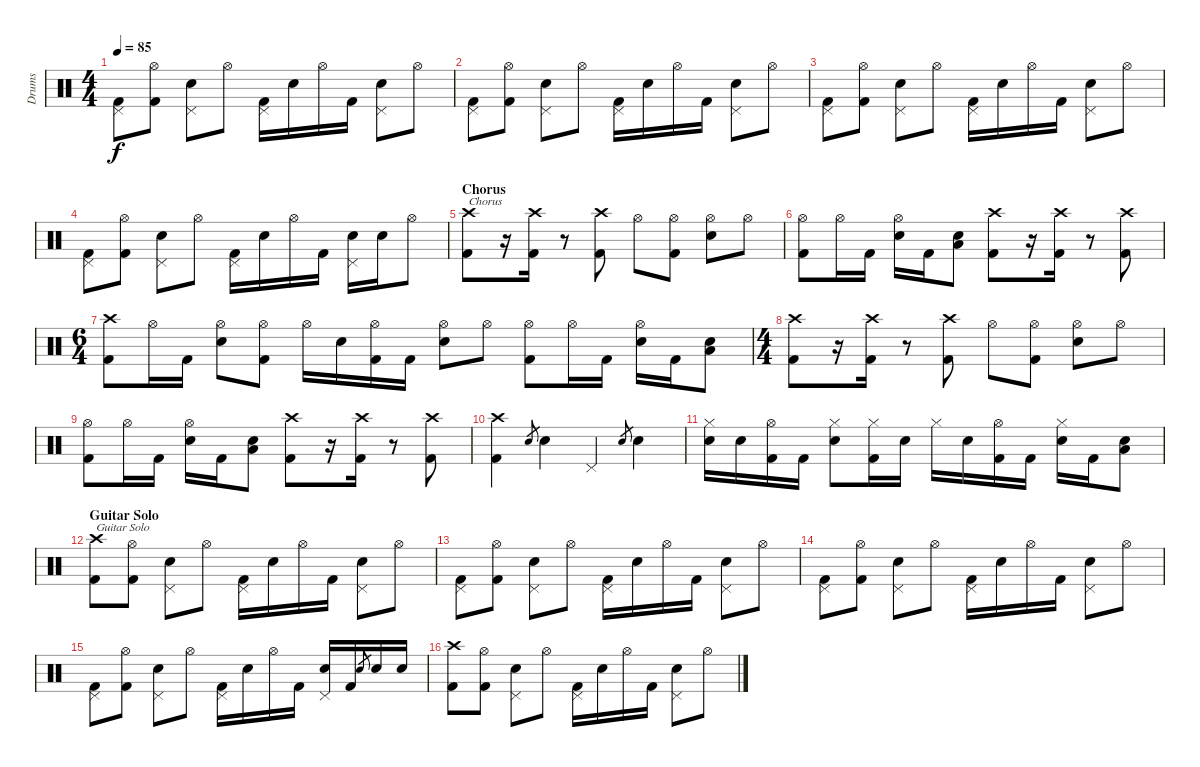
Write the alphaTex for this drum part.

\track ("Drums" "Drums") {instrument percussion}
\staff {score}
\articulation defaults
\ts (4 4)
\tempo 85
\clef neutral
\ks c
("Pedal Hi-Hat (hit)" "Kick (hit) 2").8{dy f} ("Hi-Hat (open)" "Kick (hit) 2").8 ("Electric Snare (hit)" "Pedal Hi-Hat (hit)").8 "Hi-Hat (open)".8 ("Pedal Hi-Hat (hit)" "Kick (hit) 2").16 "Electric Snare (hit)".16 "Hi-Hat (open)".16 "Kick (hit) 2".16 ("Electric Snare (hit)" "Pedal Hi-Hat (hit)").8 "Hi-Hat (open)".8 |
("Pedal Hi-Hat (hit)" "Kick (hit) 2").8 ("Hi-Hat (open)" "Kick (hit) 2").8 ("Electric Snare (hit)" "Pedal Hi-Hat (hit)").8 "Hi-Hat (open)".8 ("Pedal Hi-Hat (hit)" "Kick (hit) 2").16 "Electric Snare (hit)".16 "Hi-Hat (open)".16 "Kick (hit) 2".16 ("Electric Snare (hit)" "Pedal Hi-Hat (hit)").8 "Hi-Hat (open)".8 |
("Pedal Hi-Hat (hit)" "Kick (hit) 2").8 ("Hi-Hat (open)" "Kick (hit) 2").8 ("Electric Snare (hit)" "Pedal Hi-Hat (hit)").8 "Hi-Hat (open)".8 ("Pedal Hi-Hat (hit)" "Kick (hit) 2").16 "Electric Snare (hit)".16 "Hi-Hat (open)".16 "Kick (hit) 2".16 ("Electric Snare (hit)" "Pedal Hi-Hat (hit)").8 "Hi-Hat (open)".8 |
("Pedal Hi-Hat (hit)" "Kick (hit) 2").8 ("Hi-Hat (open)" "Kick (hit) 2").8 ("Electric Snare (hit)" "Pedal Hi-Hat (hit)").8 "Hi-Hat (open)".8 ("Pedal Hi-Hat (hit)" "Kick (hit) 2").16 "Electric Snare (hit)".16 "Hi-Hat (open)".16 "Kick (hit) 2".16 ("Electric Snare (hit)" "Pedal Hi-Hat (hit)").16 "Electric Snare (hit)".16 "Hi-Hat (open)".8 |
\section ("" "Chorus")
("Crash high (hit)" "Kick (hit) 2").8{txt "Chorus"} r.16 ("Crash high (hit)" "Kick (hit) 2").16 r.8 ("Crash high (hit)" "Kick (hit) 2").8 "Hi-Hat (open)".8 ("Hi-Hat (open)" "Kick (hit) 2").8 ("Hi-Hat (open)" "Electric Snare (hit)").8 "Hi-Hat (open)".8 |
("Hi-Hat (open)" "Kick (hit) 2").8 "Hi-Hat (open)".16 "Kick (hit) 2".16 ("Hi-Hat (open)" "Electric Snare (hit)").16 "Kick (hit) 2".16 ("Electric Snare (hit)" "Low Floor Tom (hit)").8 ("Crash high (hit)" "Kick (hit) 2").8 r.16 ("Crash high (hit)" "Kick (hit) 2").16 r.8 ("Crash high (hit)" "Kick (hit) 2").8 |
\ts (6 4)
("Crash high (hit)" "Kick (hit) 2").8 "Hi-Hat (open)".16 "Kick (hit) 2".16 ("Hi-Hat (open)" "Electric Snare (hit)").8 ("Hi-Hat (open)" "Kick (hit) 2").8 "Hi-Hat (open)".16 "Electric Snare (hit)".16 ("Hi-Hat (open)" "Kick (hit) 2").16 "Kick (hit) 2".16 ("Hi-Hat (open)" "Electric Snare (hit)").8 "Hi-Hat (open)".8 ("Hi-Hat (open)" "Kick (hit) 2").8 "Hi-Hat (open)".16 "Kick (hit) 2".16 ("Hi-Hat (open)" "Electric Snare (hit)").16 "Kick (hit) 2".16 ("Electric Snare (hit)" "Low Floor Tom (hit)").8 |
\ts (4 4)
("Crash high (hit)" "Kick (hit) 2").8 r.16 ("Crash high (hit)" "Kick (hit) 2").16 r.8 ("Crash high (hit)" "Kick (hit) 2").8 "Hi-Hat (open)".8 ("Hi-Hat (open)" "Kick (hit) 2").8 ("Hi-Hat (open)" "Electric Snare (hit)").8 "Hi-Hat (open)".8 |
("Hi-Hat (open)" "Kick (hit) 2").8 "Hi-Hat (open)".16 "Kick (hit) 2".16 ("Hi-Hat (open)" "Electric Snare (hit)").16 "Kick (hit) 2".16 ("Electric Snare (hit)" "Low Floor Tom (hit)").8 ("Crash high (hit)" "Kick (hit) 2").8 r.16 ("Crash high (hit)" "Kick (hit) 2").16 r.8 ("Crash high (hit)" "Kick (hit) 2").8 |
("Crash high (hit)" "Kick (hit) 2").4 "Electric Snare (hit)".8{gr} "Electric Snare (hit)".4 "Pedal Hi-Hat (hit)".4 "Electric Snare (hit)".8{gr} "Electric Snare (hit)".4 |
("Hi-Hat (closed)" "Electric Snare (hit)").16 "Electric Snare (hit)".16 ("Hi-Hat (open)" "Kick (hit) 2").16 "Kick (hit) 2".16 ("Hi-Hat (closed)" "Electric Snare (hit)").8 ("Hi-Hat (closed)" "Kick (hit) 2").16 "Electric Snare (hit)".16 "Hi-Hat (closed)".16 "Electric Snare (hit)".16 ("Hi-Hat (open)" "Kick (hit) 2").16 "Kick (hit) 2".16 ("Hi-Hat (closed)" "Electric Snare (hit)").16 "Kick (hit) 2".16 ("Electric Snare (hit)" "Low Floor Tom (hit)").8 |
\section ("" "Guitar Solo")
("Crash high (hit)" "Kick (hit) 2").8{txt "Guitar Solo"} ("Hi-Hat (open)" "Kick (hit) 2").8 ("Electric Snare (hit)" "Pedal Hi-Hat (hit)").8 "Hi-Hat (open)".8 ("Pedal Hi-Hat (hit)" "Kick (hit) 2").16 "Electric Snare (hit)".16 "Hi-Hat (open)".16 "Kick (hit) 2".16 ("Electric Snare (hit)" "Pedal Hi-Hat (hit)").8 "Hi-Hat (open)".8 |
("Pedal Hi-Hat (hit)" "Kick (hit) 2").8 ("Hi-Hat (open)" "Kick (hit) 2").8 ("Electric Snare (hit)" "Pedal Hi-Hat (hit)").8 "Hi-Hat (open)".8 ("Pedal Hi-Hat (hit)" "Kick (hit) 2").16 "Electric Snare (hit)".16 "Hi-Hat (open)".16 "Kick (hit) 2".16 ("Electric Snare (hit)" "Pedal Hi-Hat (hit)").8 "Hi-Hat (open)".8 |
("Pedal Hi-Hat (hit)" "Kick (hit) 2").8 ("Hi-Hat (open)" "Kick (hit) 2").8 ("Electric Snare (hit)" "Pedal Hi-Hat (hit)").8 "Hi-Hat (open)".8 ("Pedal Hi-Hat (hit)" "Kick (hit) 2").16 "Electric Snare (hit)".16 "Hi-Hat (open)".16 "Kick (hit) 2".16 ("Electric Snare (hit)" "Pedal Hi-Hat (hit)").8 "Hi-Hat (open)".8 |
("Pedal Hi-Hat (hit)" "Kick (hit) 2").8 ("Hi-Hat (open)" "Kick (hit) 2").8 ("Electric Snare (hit)" "Pedal Hi-Hat (hit)").8 "Hi-Hat (open)".8 ("Pedal Hi-Hat (hit)" "Kick (hit) 2").16 "Electric Snare (hit)".16 "Hi-Hat (open)".16 "Kick (hit) 2".16 ("Electric Snare (hit)" "Pedal Hi-Hat (hit)").16 "Kick (hit) 2".16 "Electric Snare (hit)".8{gr} "Electric Snare (hit)".16 "Electric Snare (hit)".16 |
("Crash high (hit)" "Kick (hit) 2").8 ("Hi-Hat (open)" "Kick (hit) 2").8 ("Electric Snare (hit)" "Pedal Hi-Hat (hit)").8 "Hi-Hat (open)".8 ("Pedal Hi-Hat (hit)" "Kick (hit) 2").16 "Electric Snare (hit)".16 "Hi-Hat (open)".16 "Kick (hit) 2".16 ("Electric Snare (hit)" "Pedal Hi-Hat (hit)").8 "Hi-Hat (open)".8
